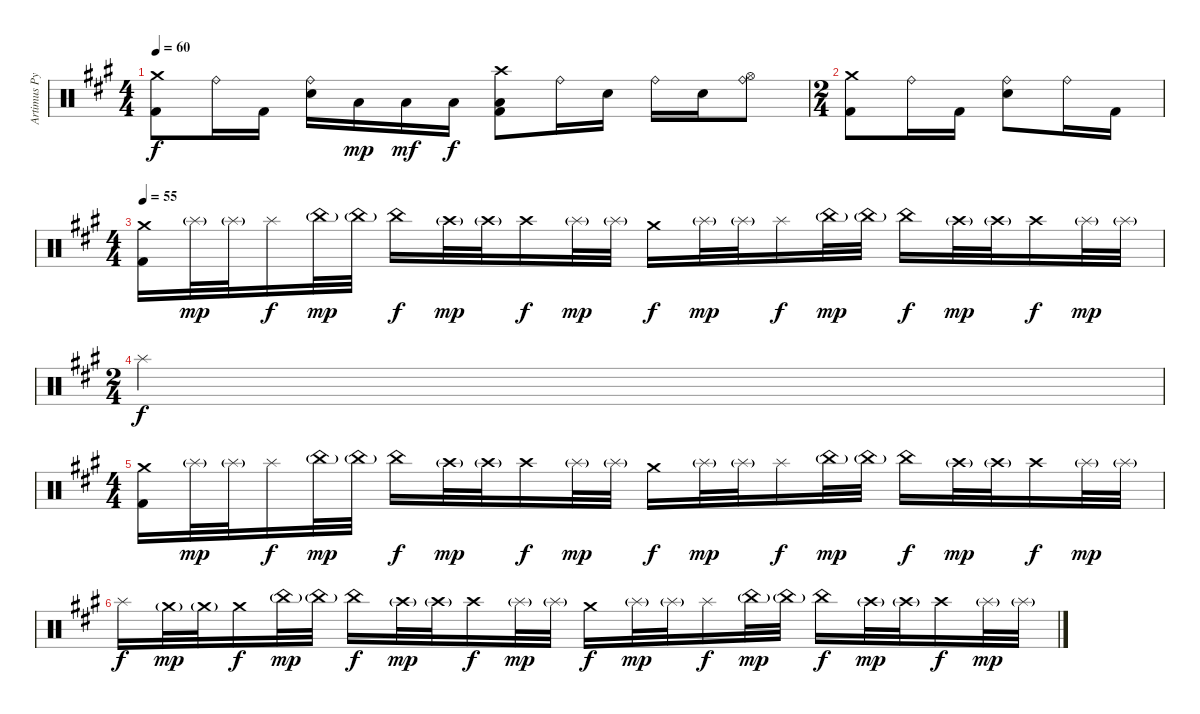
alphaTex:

\track ("Artimus Pyle - Drums" "Artimus Py") {instrument percussion}
\staff {score}
\articulation defaults
\ts (4 4)
\tempo 60
\clef neutral
\ks f#minor
("Crash medium (hit)" "Kick (hit) 2").8{dy f} "Ride (bell)".16 "Kick (hit) 2".16 ("Ride (bell)" "Snare (hit) 2").16 "Low Floor Tom (hit)".16{dy mp} "Low Floor Tom (hit)".16{dy mf} "Low Floor Tom (hit)".16{dy f} ("Crash high (hit)" "Low Floor Tom (hit)" "Kick (hit) 2").8 "Ride (bell)".16 "Snare (hit) 2".16 "Ride (bell)".16 "Snare (hit) 2".16 ("Ride (bell)" "Hi-Hat (open)").8 |
\ts (2 4)
("Crash medium (hit)" "Kick (hit) 2").8 "Ride (bell)".16 "Kick (hit) 2".16 ("Ride (bell)" "Snare (hit) 2").8 "Ride (bell)".16 "Kick (hit) 2".16 |
\ts (4 4)
\tempo 55
("Crash medium (hit)" "Kick (hit) 2").16 "Splash (hit)"{g}.32{dy mp} "Splash (hit)"{g}.32 "Splash (hit)".16{dy f} "China (hit)"{g}.32{dy mp} "China (hit)"{g}.32 "China (hit)".16{dy f} "Crash high (hit)"{g}.32{dy mp} "Crash high (hit)"{g}.32 "Crash high (hit)".16{dy f} "Splash (hit)"{g}.32{dy mp} "Splash (hit)"{g}.32 "Crash medium (hit)".16{dy f} "Splash (hit)"{g}.32{dy mp} "Splash (hit)"{g}.32 "Splash (hit)".16{dy f} "China (hit)"{g}.32{dy mp} "China (hit)"{g}.32 "China (hit)".16{dy f} "Crash high (hit)"{g}.32{dy mp} "Crash high (hit)"{g}.32 "Crash high (hit)".16{dy f} "Splash (hit)"{g}.32{dy mp} "Splash (hit)"{g}.32 |
\ts (2 4)
"Splash (hit)".2{dy f} |
\ts (4 4)
("Crash medium (hit)" "Kick (hit) 2").16 "Splash (hit)"{g}.32{dy mp} "Splash (hit)"{g}.32 "Splash (hit)".16{dy f} "China (hit)"{g}.32{dy mp} "China (hit)"{g}.32 "China (hit)".16{dy f} "Crash high (hit)"{g}.32{dy mp} "Crash high (hit)"{g}.32 "Crash high (hit)".16{dy f} "Splash (hit)"{g}.32{dy mp} "Splash (hit)"{g}.32 "Crash medium (hit)".16{dy f} "Splash (hit)"{g}.32{dy mp} "Splash (hit)"{g}.32 "Splash (hit)".16{dy f} "China (hit)"{g}.32{dy mp} "China (hit)"{g}.32 "China (hit)".16{dy f} "Crash high (hit)"{g}.32{dy mp} "Crash high (hit)"{g}.32 "Crash high (hit)".16{dy f} "Splash (hit)"{g}.32{dy mp} "Splash (hit)"{g}.32 |
"Splash (hit)".16{dy f} "Crash medium (hit)"{g}.32{dy mp} "Crash medium (hit)"{g}.32 "Crash medium (hit)".16{dy f} "China (hit)"{g}.32{dy mp} "China (hit)"{g}.32 "China (hit)".16{dy f} "Crash high (hit)"{g}.32{dy mp} "Crash high (hit)"{g}.32 "Crash high (hit)".16{dy f} "Splash (hit)"{g}.32{dy mp} "Splash (hit)"{g}.32 "Crash medium (hit)".16{dy f} "Splash (hit)"{g}.32{dy mp} "Splash (hit)"{g}.32 "Splash (hit)".16{dy f} "China (hit)"{g}.32{dy mp} "China (hit)"{g}.32 "China (hit)".16{dy f} "Crash high (hit)"{g}.32{dy mp} "Crash high (hit)"{g}.32 "Crash high (hit)".16{dy f} "Splash (hit)"{g}.32{dy mp} "Splash (hit)"{g}.32
